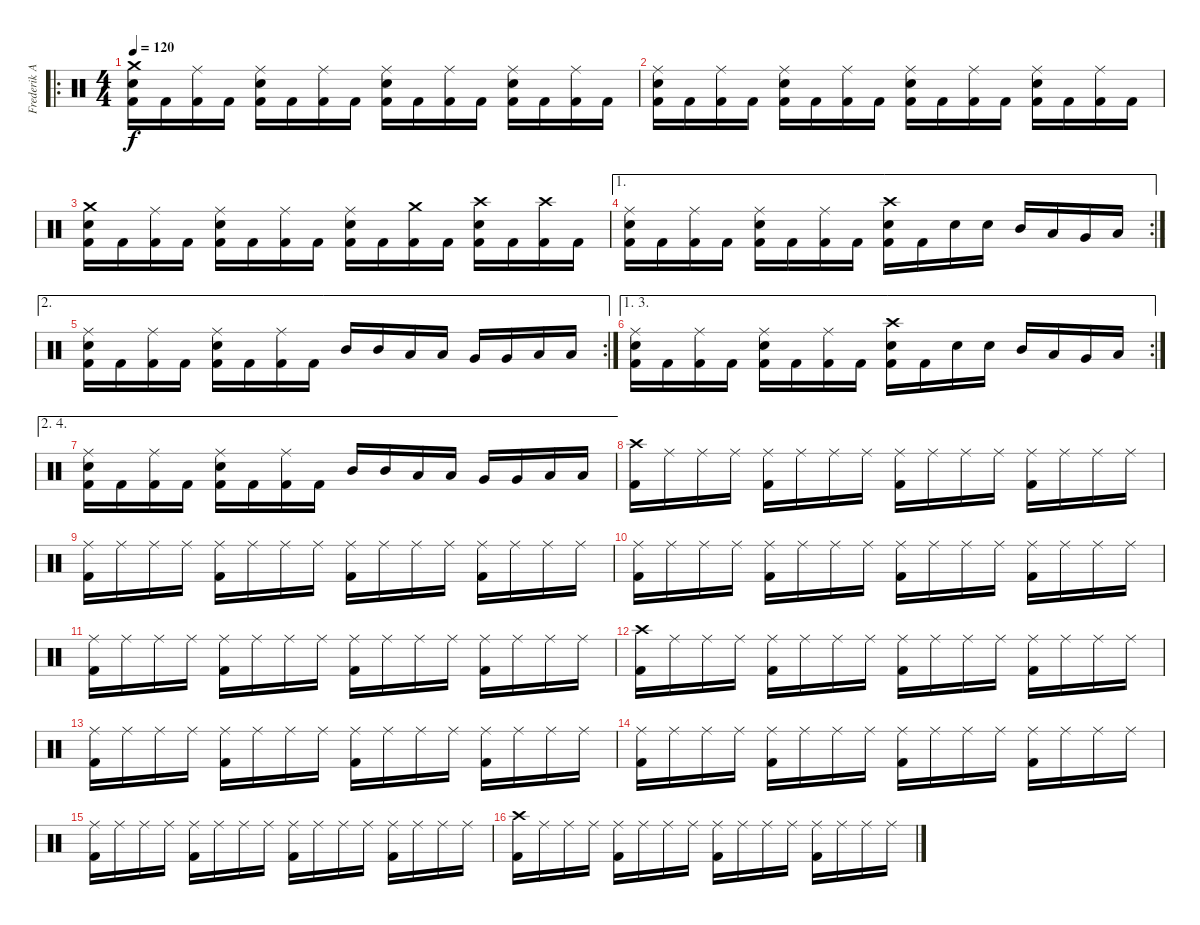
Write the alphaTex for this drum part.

\track ("Frederik Anderson" "Frederik A") {instrument percussion}
\staff {score}
\articulation defaults
\ro
\ts (4 4)
\tempo 120
\clef neutral
\ks c
("Crash medium (hit)" "Electric Snare (hit)" "Kick (hit) 2").16{dy f} "Kick (hit) 2".16 ("Ride (middle)" "Kick (hit) 2").16 "Kick (hit) 2".16 ("Ride (middle)" "Electric Snare (hit)" "Kick (hit) 2").16 "Kick (hit) 2".16 ("Ride (middle)" "Kick (hit) 2").16 "Kick (hit) 2".16 ("Ride (middle)" "Electric Snare (hit)" "Kick (hit) 2").16 "Kick (hit) 2".16 ("Ride (middle)" "Kick (hit) 2").16 "Kick (hit) 2".16 ("Ride (middle)" "Electric Snare (hit)" "Kick (hit) 2").16 "Kick (hit) 2".16 ("Ride (middle)" "Kick (hit) 2").16 "Kick (hit) 2".16 |
("Ride (middle)" "Electric Snare (hit)" "Kick (hit) 2").16 "Kick (hit) 2".16 ("Ride (middle)" "Kick (hit) 2").16 "Kick (hit) 2".16 ("Ride (middle)" "Electric Snare (hit)" "Kick (hit) 2").16 "Kick (hit) 2".16 ("Ride (middle)" "Kick (hit) 2").16 "Kick (hit) 2".16 ("Ride (middle)" "Electric Snare (hit)" "Kick (hit) 2").16 "Kick (hit) 2".16 ("Ride (middle)" "Kick (hit) 2").16 "Kick (hit) 2".16 ("Ride (middle)" "Electric Snare (hit)" "Kick (hit) 2").16 "Kick (hit) 2".16 ("Ride (middle)" "Kick (hit) 2").16 "Kick (hit) 2".16 |
("Crash medium (hit)" "Electric Snare (hit)" "Kick (hit) 2").16 "Kick (hit) 2".16 ("Ride (middle)" "Kick (hit) 2").16 "Kick (hit) 2".16 ("Ride (middle)" "Electric Snare (hit)" "Kick (hit) 2").16 "Kick (hit) 2".16 ("Ride (middle)" "Kick (hit) 2").16 "Kick (hit) 2".16 ("Ride (middle)" "Electric Snare (hit)" "Kick (hit) 2").16 "Kick (hit) 2".16 ("Crash medium (hit)" "Kick (hit) 2").16 "Kick (hit) 2".16 ("Crash high (hit)" "Electric Snare (hit)" "Kick (hit) 2").16 "Kick (hit) 2".16 ("Crash high (hit)" "Kick (hit) 2").16 "Kick (hit) 2".16 |
\ae 1
\rc 2
("Ride (middle)" "Electric Snare (hit)" "Kick (hit) 2").16 "Kick (hit) 2".16 ("Ride (middle)" "Kick (hit) 2").16 "Kick (hit) 2".16 ("Ride (middle)" "Electric Snare (hit)" "Kick (hit) 2").16 "Kick (hit) 2".16 ("Ride (middle)" "Kick (hit) 2").16 "Kick (hit) 2".16 ("Crash high (hit)" "Electric Snare (hit)" "Kick (hit) 2").16 "Kick (hit) 2".16 "Electric Snare (hit)".16 "Electric Snare (hit)".16 "Mid Tom (hit)".16 "Low Tom (hit)".16 "Very Low Tom (hit)".16 "Low Floor Tom (hit)".16 |
\ae 2
\rc 2
("Ride (middle)" "Electric Snare (hit)" "Kick (hit) 2").16 "Kick (hit) 2".16 ("Ride (middle)" "Kick (hit) 2").16 "Kick (hit) 2".16 ("Ride (middle)" "Electric Snare (hit)" "Kick (hit) 2").16 "Kick (hit) 2".16 ("Ride (middle)" "Kick (hit) 2").16 "Kick (hit) 2".16 "Mid Tom (hit)".16 "Mid Tom (hit)".16 "Low Tom (hit)".16 "Low Tom (hit)".16 "Very Low Tom (hit)".16 "Very Low Tom (hit)".16 "Low Floor Tom (hit)".16 "Low Floor Tom (hit)".16 |
\ae (1 3)
\rc 2
("Ride (middle)" "Electric Snare (hit)" "Kick (hit) 2").16 "Kick (hit) 2".16 ("Ride (middle)" "Kick (hit) 2").16 "Kick (hit) 2".16 ("Ride (middle)" "Electric Snare (hit)" "Kick (hit) 2").16 "Kick (hit) 2".16 ("Ride (middle)" "Kick (hit) 2").16 "Kick (hit) 2".16 ("Crash high (hit)" "Electric Snare (hit)" "Kick (hit) 2").16 "Kick (hit) 2".16 "Electric Snare (hit)".16 "Electric Snare (hit)".16 "Mid Tom (hit)".16 "Low Tom (hit)".16 "Very Low Tom (hit)".16 "Low Floor Tom (hit)".16 |
\ae (2 4)
("Ride (middle)" "Electric Snare (hit)" "Kick (hit) 2").16 "Kick (hit) 2".16 ("Ride (middle)" "Kick (hit) 2").16 "Kick (hit) 2".16 ("Ride (middle)" "Electric Snare (hit)" "Kick (hit) 2").16 "Kick (hit) 2".16 ("Ride (middle)" "Kick (hit) 2").16 "Kick (hit) 2".16 "Mid Tom (hit)".16 "Mid Tom (hit)".16 "Low Tom (hit)".16 "Low Tom (hit)".16 "Very Low Tom (hit)".16 "Very Low Tom (hit)".16 "Low Floor Tom (hit)".16 "Low Floor Tom (hit)".16 |
("Crash high (hit)" "Kick (hit) 2").16 "Ride (middle)".16 "Ride (middle)".16 "Ride (middle)".16 ("Ride (middle)" "Kick (hit) 2").16 "Ride (middle)".16 "Ride (middle)".16 "Ride (middle)".16 ("Ride (middle)" "Kick (hit) 2").16 "Ride (middle)".16 "Ride (middle)".16 "Ride (middle)".16 ("Ride (middle)" "Kick (hit) 2").16 "Ride (middle)".16 "Ride (middle)".16 "Ride (middle)".16 |
("Ride (middle)" "Kick (hit) 2").16 "Ride (middle)".16 "Ride (middle)".16 "Ride (middle)".16 ("Ride (middle)" "Kick (hit) 2").16 "Ride (middle)".16 "Ride (middle)".16 "Ride (middle)".16 ("Ride (middle)" "Kick (hit) 2").16 "Ride (middle)".16 "Ride (middle)".16 "Ride (middle)".16 ("Ride (middle)" "Kick (hit) 2").16 "Ride (middle)".16 "Ride (middle)".16 "Ride (middle)".16 |
("Ride (middle)" "Kick (hit) 2").16 "Ride (middle)".16 "Ride (middle)".16 "Ride (middle)".16 ("Ride (middle)" "Kick (hit) 2").16 "Ride (middle)".16 "Ride (middle)".16 "Ride (middle)".16 ("Ride (middle)" "Kick (hit) 2").16 "Ride (middle)".16 "Ride (middle)".16 "Ride (middle)".16 ("Ride (middle)" "Kick (hit) 2").16 "Ride (middle)".16 "Ride (middle)".16 "Ride (middle)".16 |
("Ride (middle)" "Kick (hit) 2").16 "Ride (middle)".16 "Ride (middle)".16 "Ride (middle)".16 ("Ride (middle)" "Kick (hit) 2").16 "Ride (middle)".16 "Ride (middle)".16 "Ride (middle)".16 ("Ride (middle)" "Kick (hit) 2").16 "Ride (middle)".16 "Ride (middle)".16 "Ride (middle)".16 ("Ride (middle)" "Kick (hit) 2").16 "Ride (middle)".16 "Ride (middle)".16 "Ride (middle)".16 |
("Crash high (hit)" "Kick (hit) 2").16 "Ride (middle)".16 "Ride (middle)".16 "Ride (middle)".16 ("Ride (middle)" "Kick (hit) 2").16 "Ride (middle)".16 "Ride (middle)".16 "Ride (middle)".16 ("Ride (middle)" "Kick (hit) 2").16 "Ride (middle)".16 "Ride (middle)".16 "Ride (middle)".16 ("Ride (middle)" "Kick (hit) 2").16 "Ride (middle)".16 "Ride (middle)".16 "Ride (middle)".16 |
("Ride (middle)" "Kick (hit) 2").16 "Ride (middle)".16 "Ride (middle)".16 "Ride (middle)".16 ("Ride (middle)" "Kick (hit) 2").16 "Ride (middle)".16 "Ride (middle)".16 "Ride (middle)".16 ("Ride (middle)" "Kick (hit) 2").16 "Ride (middle)".16 "Ride (middle)".16 "Ride (middle)".16 ("Ride (middle)" "Kick (hit) 2").16 "Ride (middle)".16 "Ride (middle)".16 "Ride (middle)".16 |
("Ride (middle)" "Kick (hit) 2").16 "Ride (middle)".16 "Ride (middle)".16 "Ride (middle)".16 ("Ride (middle)" "Kick (hit) 2").16 "Ride (middle)".16 "Ride (middle)".16 "Ride (middle)".16 ("Ride (middle)" "Kick (hit) 2").16 "Ride (middle)".16 "Ride (middle)".16 "Ride (middle)".16 ("Ride (middle)" "Kick (hit) 2").16 "Ride (middle)".16 "Ride (middle)".16 "Ride (middle)".16 |
("Ride (middle)" "Kick (hit) 2").16 "Ride (middle)".16 "Ride (middle)".16 "Ride (middle)".16 ("Ride (middle)" "Kick (hit) 2").16 "Ride (middle)".16 "Ride (middle)".16 "Ride (middle)".16 ("Ride (middle)" "Kick (hit) 2").16 "Ride (middle)".16 "Ride (middle)".16 "Ride (middle)".16 ("Ride (middle)" "Kick (hit) 2").16 "Ride (middle)".16 "Ride (middle)".16 "Ride (middle)".16 |
("Crash high (hit)" "Kick (hit) 2").16 "Ride (middle)".16 "Ride (middle)".16 "Ride (middle)".16 ("Ride (middle)" "Kick (hit) 2").16 "Ride (middle)".16 "Ride (middle)".16 "Ride (middle)".16 ("Ride (middle)" "Kick (hit) 2").16 "Ride (middle)".16 "Ride (middle)".16 "Ride (middle)".16 ("Ride (middle)" "Kick (hit) 2").16 "Ride (middle)".16 "Ride (middle)".16 "Ride (middle)".16
